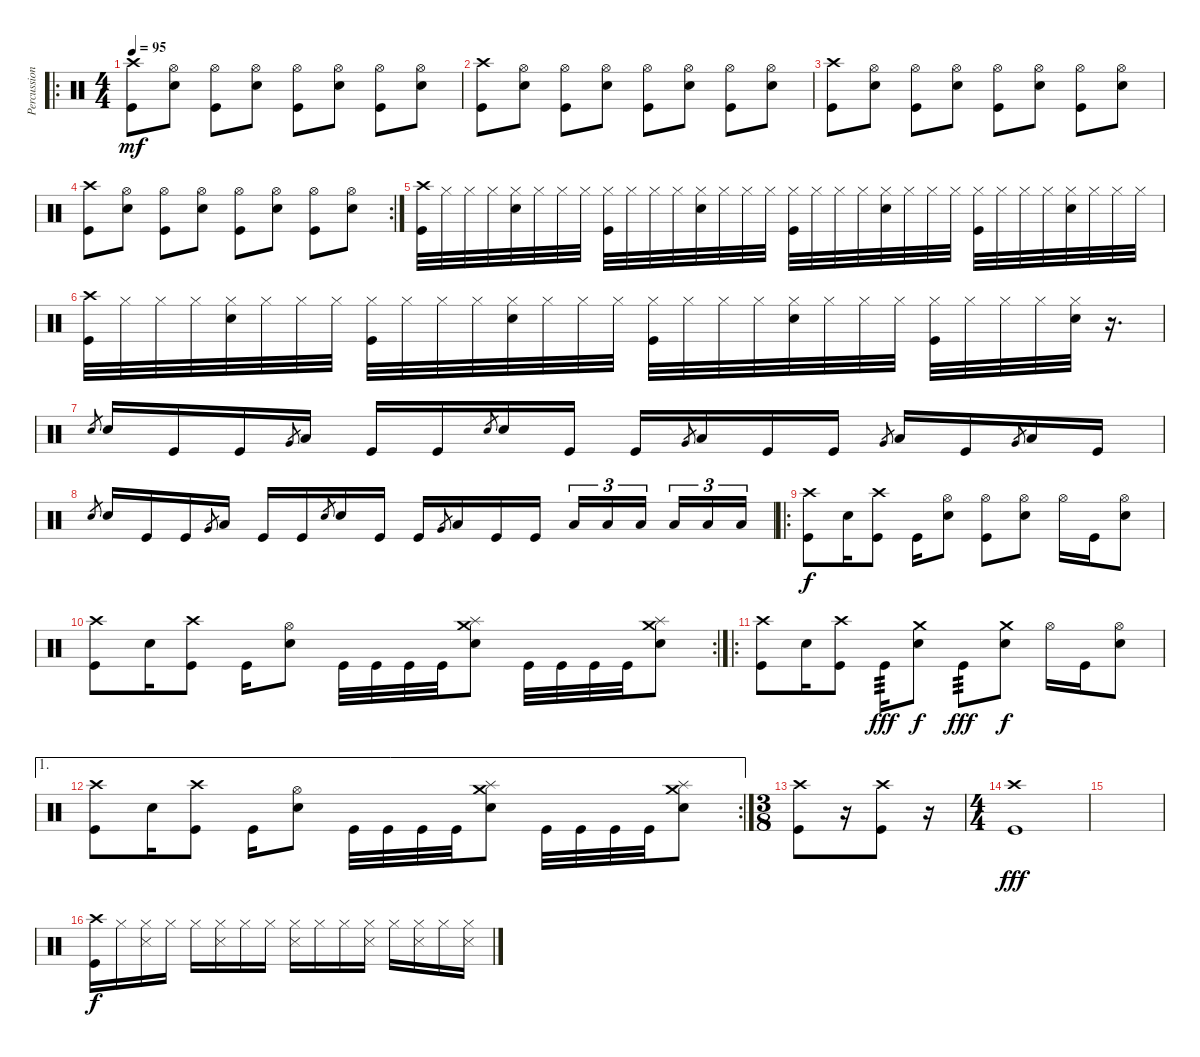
\track ("Percussion" "Percussion") {instrument percussion}
\staff {score}
\articulation defaults
\ro
\ts (4 4)
\tempo 95
\clef neutral
\ks c
("Crash high (hit)" "Kick (hit)").8{dy mf} ("Hi-Hat (open)" "Electric Snare (hit)").8 ("Hi-Hat (open)" "Kick (hit)").8 ("Hi-Hat (open)" "Electric Snare (hit)").8 ("Hi-Hat (open)" "Kick (hit)").8 ("Hi-Hat (open)" "Electric Snare (hit)").8 ("Hi-Hat (open)" "Kick (hit)").8 ("Hi-Hat (open)" "Electric Snare (hit)").8 |
("Crash high (hit)" "Kick (hit)").8 ("Hi-Hat (open)" "Electric Snare (hit)").8 ("Hi-Hat (open)" "Kick (hit)").8 ("Hi-Hat (open)" "Electric Snare (hit)").8 ("Hi-Hat (open)" "Kick (hit)").8 ("Hi-Hat (open)" "Electric Snare (hit)").8 ("Hi-Hat (open)" "Kick (hit)").8 ("Hi-Hat (open)" "Electric Snare (hit)").8 |
("Crash high (hit)" "Kick (hit)").8 ("Hi-Hat (open)" "Electric Snare (hit)").8 ("Hi-Hat (open)" "Kick (hit)").8 ("Hi-Hat (open)" "Electric Snare (hit)").8 ("Hi-Hat (open)" "Kick (hit)").8 ("Hi-Hat (open)" "Electric Snare (hit)").8 ("Hi-Hat (open)" "Kick (hit)").8 ("Hi-Hat (open)" "Electric Snare (hit)").8 |
\rc 2
("Crash high (hit)" "Kick (hit)").8 ("Hi-Hat (open)" "Electric Snare (hit)").8 ("Hi-Hat (open)" "Kick (hit)").8 ("Hi-Hat (open)" "Electric Snare (hit)").8 ("Hi-Hat (open)" "Kick (hit)").8 ("Hi-Hat (open)" "Electric Snare (hit)").8 ("Hi-Hat (open)" "Kick (hit)").8 ("Hi-Hat (open)" "Electric Snare (hit)").8 |
("Crash high (hit)" "Kick (hit)").32 "Hi-Hat (closed)".32 "Hi-Hat (closed)".32 "Hi-Hat (closed)".32 ("Hi-Hat (closed)" "Electric Snare (hit)").32 "Hi-Hat (closed)".32 "Hi-Hat (closed)".32 "Hi-Hat (closed)".32 ("Hi-Hat (closed)" "Kick (hit)").32 "Hi-Hat (closed)".32 "Hi-Hat (closed)".32 "Hi-Hat (closed)".32 ("Hi-Hat (closed)" "Electric Snare (hit)").32 "Hi-Hat (closed)".32 "Hi-Hat (closed)".32 "Hi-Hat (closed)".32 ("Hi-Hat (closed)" "Kick (hit)").32 "Hi-Hat (closed)".32 "Hi-Hat (closed)".32 "Hi-Hat (closed)".32 ("Hi-Hat (closed)" "Electric Snare (hit)").32 "Hi-Hat (closed)".32 "Hi-Hat (closed)".32 "Hi-Hat (closed)".32 ("Hi-Hat (closed)" "Kick (hit)").32 "Hi-Hat (closed)".32 "Hi-Hat (closed)".32 "Hi-Hat (closed)".32 ("Hi-Hat (closed)" "Electric Snare (hit)").32 "Hi-Hat (closed)".32 "Hi-Hat (closed)".32 "Hi-Hat (closed)".32 |
("Crash high (hit)" "Kick (hit)").32 "Hi-Hat (closed)".32 "Hi-Hat (closed)".32 "Hi-Hat (closed)".32 ("Hi-Hat (closed)" "Electric Snare (hit)").32 "Hi-Hat (closed)".32 "Hi-Hat (closed)".32 "Hi-Hat (closed)".32 ("Hi-Hat (closed)" "Kick (hit)").32 "Hi-Hat (closed)".32 "Hi-Hat (closed)".32 "Hi-Hat (closed)".32 ("Hi-Hat (closed)" "Electric Snare (hit)").32 "Hi-Hat (closed)".32 "Hi-Hat (closed)".32 "Hi-Hat (closed)".32 ("Hi-Hat (closed)" "Kick (hit)").32 "Hi-Hat (closed)".32 "Hi-Hat (closed)".32 "Hi-Hat (closed)".32 ("Hi-Hat (closed)" "Electric Snare (hit)").32 "Hi-Hat (closed)".32 "Hi-Hat (closed)".32 "Hi-Hat (closed)".32 ("Hi-Hat (closed)" "Kick (hit)").32 "Hi-Hat (closed)".32 "Hi-Hat (closed)".32 "Hi-Hat (closed)".32 ("Hi-Hat (closed)" "Electric Snare (hit)").32 r.16{d} |
"Electric Snare (hit)".8{gr} "Electric Snare (hit)".16 "Kick (hit)".16 "Kick (hit)".16 "Very Low Tom (hit)".8{gr} "Low Floor Tom (hit)".16 "Kick (hit)".16 "Kick (hit)".16 "Electric Snare (hit)".8{gr} "Electric Snare (hit)".16 "Kick (hit)".16 "Kick (hit)".16 "Very Low Tom (hit)".8{gr} "Low Floor Tom (hit)".16 "Kick (hit)".16 "Kick (hit)".16 "Very Low Tom (hit)".8{gr} "Low Floor Tom (hit)".16 "Kick (hit)".16 "Very Low Tom (hit)".8{gr} "Low Floor Tom (hit)".16 "Kick (hit)".16 |
"Electric Snare (hit)".8{gr} "Electric Snare (hit)".16 "Kick (hit)".16 "Kick (hit)".16 "Very Low Tom (hit)".8{gr} "Low Floor Tom (hit)".16 "Kick (hit)".16 "Kick (hit)".16 "Electric Snare (hit)".8{gr} "Electric Snare (hit)".16 "Kick (hit)".16 "Kick (hit)".16 "Very Low Tom (hit)".8{gr} "Low Floor Tom (hit)".16 "Kick (hit)".16 "Kick (hit)".16 "Low Floor Tom (hit)".16{tu (3 2)} "Low Floor Tom (hit)".16{tu (3 2)} "Low Floor Tom (hit)".16{tu (3 2) beam splitsecondary} "Low Floor Tom (hit)".16{tu (3 2)} "Low Floor Tom (hit)".16{tu (3 2)} "Low Floor Tom (hit)".16{tu (3 2)} |
\ro
("Crash high (hit)" "Kick (hit)").8{dy f} "Electric Snare (hit)".16 ("Crash high (hit)" "Kick (hit)").8 "Kick (hit)".16 ("Hi-Hat (open)" "Electric Snare (hit)").8 ("Hi-Hat (open)" "Kick (hit)").8 ("Hi-Hat (open)" "Electric Snare (hit)").8 "Hi-Hat (open)".16 "Kick (hit)".16 ("Hi-Hat (open)" "Electric Snare (hit)").8 |
\rc 2
("Crash high (hit)" "Kick (hit)").8 "Electric Snare (hit)".16 ("Crash high (hit)" "Kick (hit)").8 "Kick (hit)".16 ("Hi-Hat (open)" "Electric Snare (hit)").8 "Kick (hit)".32 "Kick (hit)".32 "Kick (hit)".32 "Kick (hit)".32 ("Splash (hit)" "Crash medium (hit)" "Electric Snare (hit)").8 "Kick (hit)".32 "Kick (hit)".32 "Kick (hit)".32 "Kick (hit)".32 ("Splash (hit)" "Crash medium (hit)" "Electric Snare (hit)").8 |
\ro
("Crash high (hit)" "Kick (hit)").8 "Electric Snare (hit)".16 ("Crash high (hit)" "Kick (hit)").8 "Kick (hit)".16{tp 3 dy fff} ("Crash medium (hit)" "Electric Snare (hit)").8{dy f} "Kick (hit)".8{tp 3 dy fff} ("Crash medium (hit)" "Electric Snare (hit)").8{dy f} "Hi-Hat (open)".16 "Kick (hit)".16 ("Hi-Hat (open)" "Electric Snare (hit)").8 |
\ae 1
\rc 2
("Crash high (hit)" "Kick (hit)").8 "Electric Snare (hit)".16 ("Crash high (hit)" "Kick (hit)").8 "Kick (hit)".16 ("Hi-Hat (open)" "Electric Snare (hit)").8 "Kick (hit)".32 "Kick (hit)".32 "Kick (hit)".32 "Kick (hit)".32 ("Splash (hit)" "Crash medium (hit)" "Electric Snare (hit)").8 "Kick (hit)".32 "Kick (hit)".32 "Kick (hit)".32 "Kick (hit)".32 ("Splash (hit)" "Crash medium (hit)" "Electric Snare (hit)").8 |
\ts (3 8)
("Crash high (hit)" "Kick (hit)").8 r.16 ("Crash high (hit)" "Kick (hit)").8 r.16 |
\ts (4 4)
("Crash high (hit)" "Kick (hit)").1{dy fff} |
|
("Crash high (hit)" "Kick (hit)").16{dy f} "Hi-Hat (closed)".16 ("Hi-Hat (closed)" "Snare (side stick) 3").16 "Hi-Hat (closed)".16 "Hi-Hat (closed)".16 ("Hi-Hat (closed)" "Snare (side stick) 3").16 "Hi-Hat (closed)".16 "Hi-Hat (closed)".16 ("Hi-Hat (closed)" "Snare (side stick) 3").16 "Hi-Hat (closed)".16 "Hi-Hat (closed)".16 ("Hi-Hat (closed)" "Snare (side stick) 3").16 "Hi-Hat (closed)".16 ("Hi-Hat (closed)" "Snare (side stick) 3").16 "Hi-Hat (closed)".16 ("Hi-Hat (closed)" "Snare (side stick) 3").16
